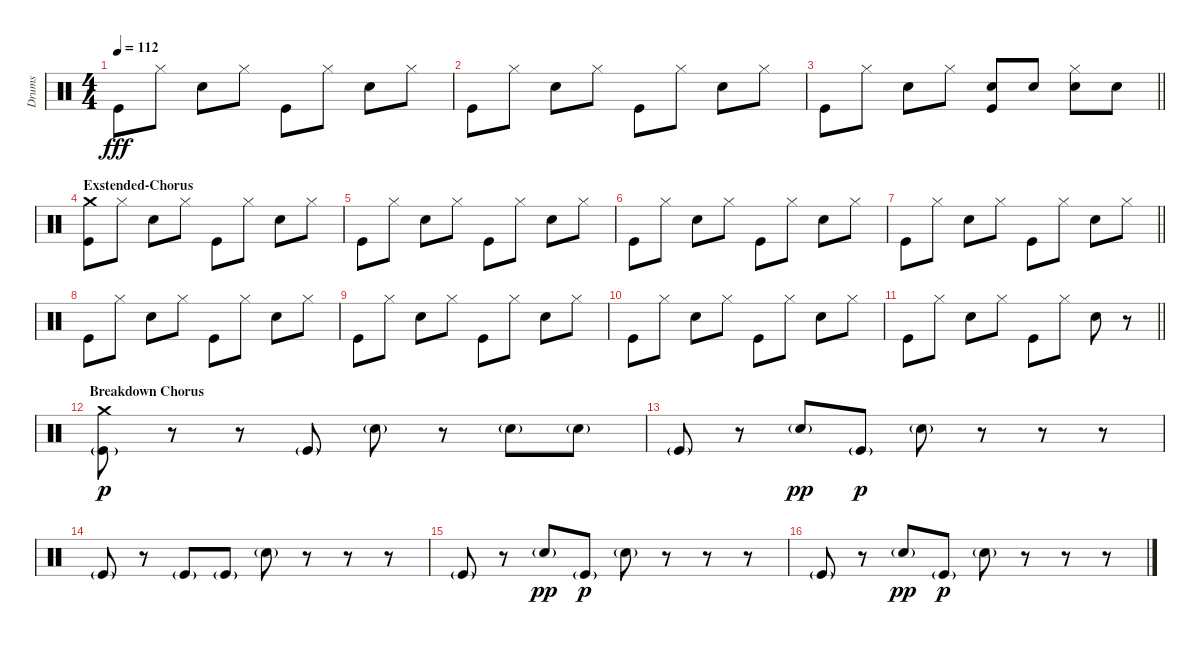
\track ("Drums" "Drums") {instrument percussion}
\staff {score}
\articulation defaults
\ts (4 4)
\tempo 112
\clef neutral
\ks c "Kick (hit)".8{dy fff} "Hi-Hat (closed)".8 "Snare (hit) 2".8 "Hi-Hat (closed)".8 "Kick (hit)".8 "Hi-Hat (closed)".8 "Snare (hit) 2".8 "Hi-Hat (closed)".8
|
"Kick (hit)".8 "Hi-Hat (closed)".8 "Snare (hit) 2".8 "Hi-Hat (closed)".8 "Kick (hit)".8 "Hi-Hat (closed)".8 "Snare (hit) 2".8 "Hi-Hat (closed)".8 |
\barLineRight lightlight "Kick (hit)".8 "Hi-Hat (closed)".8 "Snare (hit) 2".8 "Hi-Hat (closed)".8
("Snare (hit) 2" "Kick (hit)").8 "Snare (hit) 2".8 ("Hi-Hat (closed)" "Snare (hit) 2").8 "Snare (hit) 2".8 |
\section ("" "Exstended-Chorus")
("Crash medium (hit)" "Kick (hit)").8 "Hi-Hat (closed)".8 "Snare (hit) 2".8 "Hi-Hat (closed)".8 "Kick (hit)".8 "Hi-Hat (closed)".8 "Snare (hit) 2".8 "Hi-Hat (closed)".8 |
"Kick (hit)".8 "Hi-Hat (closed)".8 "Snare (hit) 2".8 "Hi-Hat (closed)".8 "Kick (hit)".8 "Hi-Hat (closed)".8 "Snare (hit) 2".8 "Hi-Hat (closed)".8 |
"Kick (hit)".8 "Hi-Hat (closed)".8 "Snare (hit) 2".8 "Hi-Hat (closed)".8 "Kick (hit)".8 "Hi-Hat (closed)".8 "Snare (hit) 2".8 "Hi-Hat (closed)".8 |
\barLineRight lightlight "Kick (hit)".8 "Hi-Hat (closed)".8 "Snare (hit) 2".8 "Hi-Hat (closed)".8 "Kick (hit)".8 "Hi-Hat (closed)".8 "Snare (hit) 2".8 "Hi-Hat (closed)".8
|
"Kick (hit)".8 "Hi-Hat (closed)".8 "Snare (hit) 2".8 "Hi-Hat (closed)".8 "Kick (hit)".8 "Hi-Hat (closed)".8 "Snare (hit) 2".8 "Hi-Hat (closed)".8 |
"Kick (hit)".8 "Hi-Hat (closed)".8 "Snare (hit) 2".8 "Hi-Hat (closed)".8 "Kick (hit)".8 "Hi-Hat (closed)".8 "Snare (hit) 2".8 "Hi-Hat (closed)".8 |
"Kick (hit)".8 "Hi-Hat (closed)".8 "Snare (hit) 2".8 "Hi-Hat (closed)".8 "Kick (hit)".8 "Hi-Hat (closed)".8 "Snare (hit) 2".8 "Hi-Hat (closed)".8 |
\barLineRight lightlight "Kick (hit)".8 "Hi-Hat (closed)".8 "Snare (hit) 2".8 "Hi-Hat (closed)".8 "Kick (hit)".8 "Hi-Hat (closed)".8 "Snare (hit) 2".8
r.8 |
\section ("" "Breakdown Chorus")
("Crash medium (hit)" "Kick (hit)"{g}).8{dy p} r.8 r.8 "Kick (hit)"{g}.8 "Snare (hit) 2"{g}.8 r.8 "Snare (hit) 2"{g}.8 "Snare (hit) 2"{g}.8 |
"Kick (hit)"{g}.8 r.8 "Snare (hit) 2"{g}.8{dy pp} "Kick (hit)"{g}.8{dy p} "Snare (hit) 2"{g}.8 r.8 r.8 r.8 |
"Kick (hit)"{g}.8 r.8 "Kick (hit)"{g}.8 "Kick (hit)"{g}.8 "Snare (hit) 2"{g}.8 r.8 r.8 r.8 |
"Kick (hit)"{g}.8 r.8 "Snare (hit) 2"{g}.8{dy pp} "Kick (hit)"{g}.8{dy p} "Snare (hit) 2"{g}.8 r.8 r.8 r.8 |
"Kick (hit)"{g}.8 r.8 "Snare (hit) 2"{g}.8{dy pp} "Kick (hit)"{g}.8{dy p} "Snare (hit) 2"{g}.8 r.8 r.8 r.8
